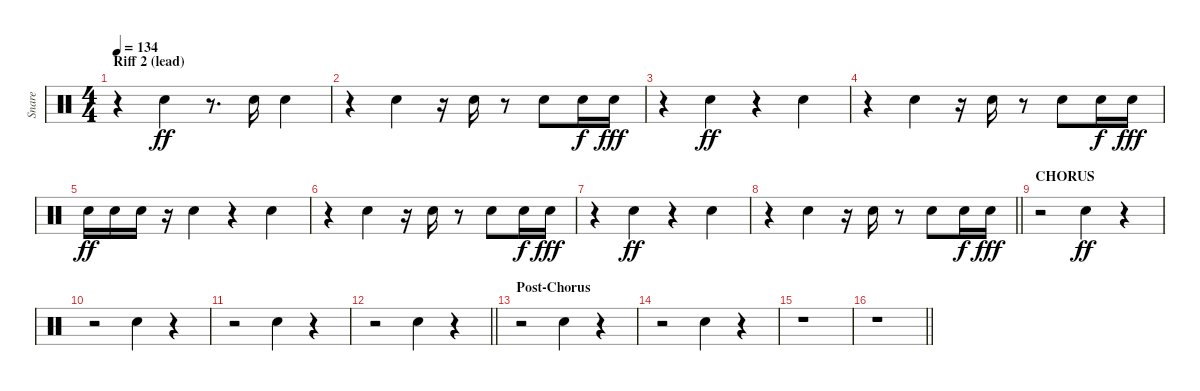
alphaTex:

\track ("Snare" "Snare") {instrument percussion}
\staff {score}
\articulation defaults
\ts (4 4)
\section ("" "Riff 2 (lead)")
\tempo 134
\clef neutral
\ks c
r.4{dy fff} "Snare (hit) 2".4{dy ff} r.8{d} "Electric Snare (hit)".16 "Snare (hit) 2".4 |
r.4 "Snare (hit) 2".4 r.16 "Snare (hit) 2".16 r.8 "Snare (hit) 2".8 "Snare (hit) 2".16{dy f} "Snare (hit) 2".16{dy fff} |
r.4 "Snare (hit) 2".4{dy ff} r.4 "Snare (hit) 2".4 |
r.4 "Snare (hit) 2".4 r.16 "Snare (hit) 2".16 r.8 "Snare (hit) 2".8 "Snare (hit) 2".16{dy f} "Snare (hit) 2".16{dy fff} |
"Metronome (bell)".16{dy ff} "Metronome (bell)".16 "Metronome (bell)".16 r.16 "Snare (hit) 2".4 r.4 "Snare (hit) 2".4 |
r.4 "Snare (hit) 2".4 r.16 "Snare (hit) 2".16 r.8 "Snare (hit) 2".8 "Snare (hit) 2".16{dy f} "Snare (hit) 2".16{dy fff} |
r.4 "Snare (hit) 2".4{dy ff} r.4 "Snare (hit) 2".4 |
\barLineRight lightlight
r.4 "Snare (hit) 2".4 r.16 "Snare (hit) 2".16 r.8 "Snare (hit) 2".8 "Snare (hit) 2".16{dy f} "Snare (hit) 2".16{dy fff} |
\section ("" "CHORUS")
r.2 "Snare (hit) 2".4{dy ff} r.4 |
r.2 "Snare (hit) 2".4 r.4 |
r.2 "Snare (hit) 2".4 r.4 |
\barLineRight lightlight
r.2 "Snare (hit) 2".4 r.4 |
\section ("" "Post-Chorus")
r.2 "Snare (hit) 2".4 r.4 |
r.2 "Snare (hit) 2".4 r.4 |
r.1 |
\barLineRight lightlight
r.1
